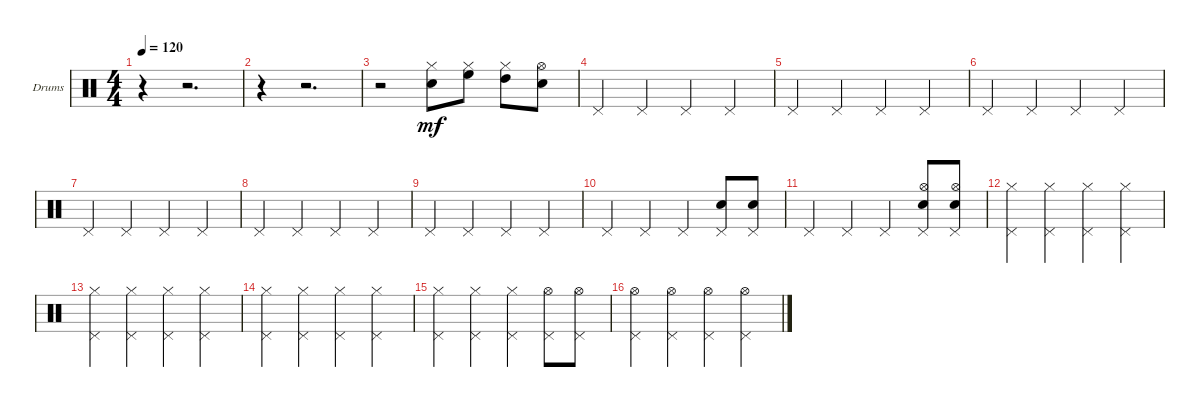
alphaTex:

\bracketExtendMode groupsimilarinstruments
\firstSystemTrackNameOrientation horizontal
\otherSystemsTrackNameOrientation horizontal
\track ("Drumkit" "Drums") {instrument percussion}
\staff {score}
\articulation defaults
\ts (4 4)
\beaming (8 2 2 2 2)
\tempo 120
\clef neutral
\ks c
r.4{dy mf} r.2{d} |
r.4 r.2{d} |
r.2 ("Snare (hit) 2" "Hi-Hat (closed)").8 ("High Floor Tom (hit)" "Hi-Hat (closed)").8 ("High Tom (hit)" "Hi-Hat (closed)").8 ("Hi-Hat (open)" "Snare (hit) 2").8 |
"Pedal Hi-Hat (hit)".4 "Pedal Hi-Hat (hit)".4 "Pedal Hi-Hat (hit)".4 "Pedal Hi-Hat (hit)".4 |
"Pedal Hi-Hat (hit)".4 "Pedal Hi-Hat (hit)".4 "Pedal Hi-Hat (hit)".4 "Pedal Hi-Hat (hit)".4 |
"Pedal Hi-Hat (hit)".4 "Pedal Hi-Hat (hit)".4 "Pedal Hi-Hat (hit)".4 "Pedal Hi-Hat (hit)".4 |
"Pedal Hi-Hat (hit)".4 "Pedal Hi-Hat (hit)".4 "Pedal Hi-Hat (hit)".4 "Pedal Hi-Hat (hit)".4 |
"Pedal Hi-Hat (hit)".4 "Pedal Hi-Hat (hit)".4 "Pedal Hi-Hat (hit)".4 "Pedal Hi-Hat (hit)".4 |
"Pedal Hi-Hat (hit)".4 "Pedal Hi-Hat (hit)".4 "Pedal Hi-Hat (hit)".4 "Pedal Hi-Hat (hit)".4 |
"Pedal Hi-Hat (hit)".4 "Pedal Hi-Hat (hit)".4 "Pedal Hi-Hat (hit)".4 ("Pedal Hi-Hat (hit)" "Snare (hit) 2").8 ("Pedal Hi-Hat (hit)" "Snare (hit) 2").8 |
"Pedal Hi-Hat (hit)".4 "Pedal Hi-Hat (hit)".4 "Pedal Hi-Hat (hit)".4 ("Pedal Hi-Hat (hit)" "Snare (hit) 2" "Hi-Hat (open)").8 ("Snare (hit) 2" "Hi-Hat (open)" "Pedal Hi-Hat (hit)").8 |
("Pedal Hi-Hat (hit)" "Hi-Hat (closed)").4 ("Pedal Hi-Hat (hit)" "Hi-Hat (closed)").4 ("Pedal Hi-Hat (hit)" "Hi-Hat (closed)").4 ("Pedal Hi-Hat (hit)" "Hi-Hat (closed)").4 |
("Pedal Hi-Hat (hit)" "Hi-Hat (closed)").4 ("Pedal Hi-Hat (hit)" "Hi-Hat (closed)").4 ("Pedal Hi-Hat (hit)" "Hi-Hat (closed)").4 ("Pedal Hi-Hat (hit)" "Hi-Hat (closed)").4 |
("Pedal Hi-Hat (hit)" "Hi-Hat (closed)").4 ("Pedal Hi-Hat (hit)" "Hi-Hat (closed)").4 ("Pedal Hi-Hat (hit)" "Hi-Hat (closed)").4 ("Pedal Hi-Hat (hit)" "Hi-Hat (closed)").4 |
("Pedal Hi-Hat (hit)" "Hi-Hat (closed)").4 ("Pedal Hi-Hat (hit)" "Hi-Hat (closed)").4 ("Pedal Hi-Hat (hit)" "Hi-Hat (closed)").4 ("Pedal Hi-Hat (hit)" "Hi-Hat (open)").8 ("Pedal Hi-Hat (hit)" "Hi-Hat (open)").8 |
("Pedal Hi-Hat (hit)" "Hi-Hat (open)").4 ("Pedal Hi-Hat (hit)" "Hi-Hat (open)").4 ("Pedal Hi-Hat (hit)" "Hi-Hat (open)").4 ("Pedal Hi-Hat (hit)" "Hi-Hat (open)").4
